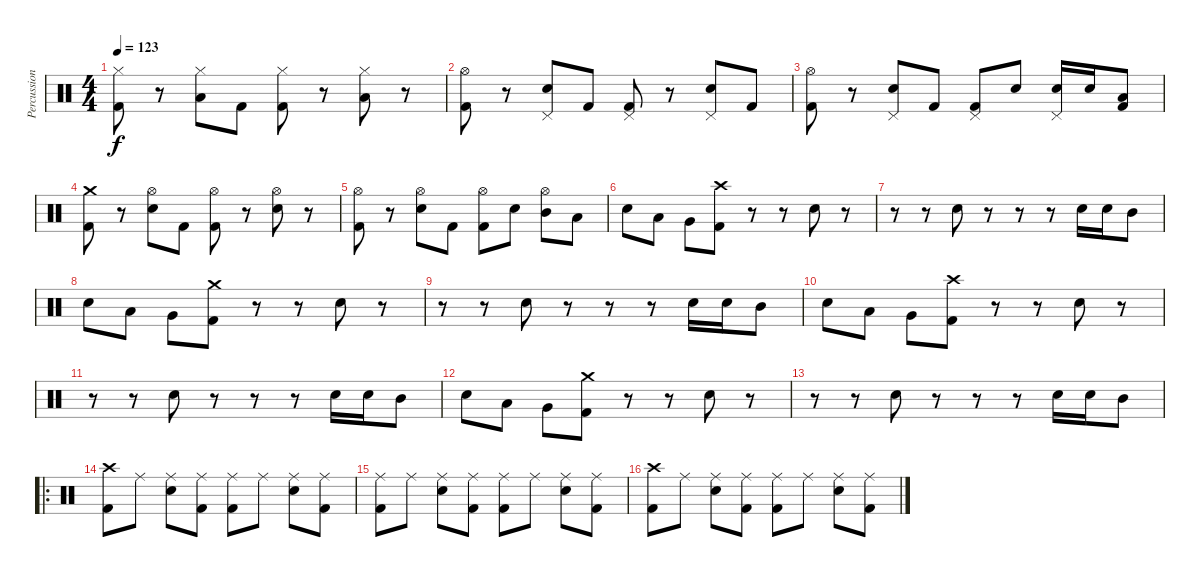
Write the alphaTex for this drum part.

\track ("Percussion" "Percussion") {instrument percussion}
\staff {score}
\articulation defaults
\ts (4 4)
\tempo 123
\clef neutral
\ks c
("Hi-Hat (closed)" "Kick (hit) 2").8{dy f} r.8 ("Hi-Hat (closed)" "Low Tom (hit)").8 "Kick (hit) 2".8 ("Hi-Hat (closed)" "Kick (hit) 2").8 r.8 ("Hi-Hat (closed)" "Low Tom (hit)").8 r.8 |
\section ("" "")
("Hi-Hat (open)" "Kick (hit) 2").8 r.8 ("Pedal Hi-Hat (hit)" "Electric Snare (hit)").8 "Kick (hit) 2".8 ("Pedal Hi-Hat (hit)" "Kick (hit) 2").8 r.8 ("Pedal Hi-Hat (hit)" "Electric Snare (hit)").8 "Kick (hit) 2".8 |
("Hi-Hat (open)" "Kick (hit) 2").8 r.8 ("Pedal Hi-Hat (hit)" "Electric Snare (hit)").8 "Kick (hit) 2".8 ("Pedal Hi-Hat (hit)" "Kick (hit) 2").8 "Electric Snare (hit)".8 ("Pedal Hi-Hat (hit)" "Electric Snare (hit)").16 "Electric Snare (hit)".16 ("Low Tom (hit)" "Kick (hit) 2").8 |
("Crash medium (hit)" "Kick (hit) 2").8 r.8 ("Hi-Hat (open)" "Electric Snare (hit)").8 "Kick (hit) 2".8 ("Hi-Hat (open)" "Kick (hit) 2").8 r.8 ("Hi-Hat (open)" "Electric Snare (hit)").8 r.8 |
("Hi-Hat (open)" "Kick (hit) 2").8 r.8 ("Hi-Hat (open)" "Electric Snare (hit)").8 "Kick (hit) 2".8 ("Hi-Hat (open)" "Kick (hit) 2").8 "Electric Snare (hit)".8 ("Hi-Hat (open)" "Mid Tom (hit)").8 "Low Tom (hit)".8 |
\section ("" "")
"Electric Snare (hit)".8 "Low Tom (hit)".8 "Very Low Tom (hit)".8 ("Crash high (hit)" "Kick (hit) 2").8 r.8 r.8 "Electric Snare (hit)".8 r.8 |
r.8 r.8 "Electric Snare (hit)".8 r.8 r.8 r.8 "Electric Snare (hit)".16 "Electric Snare (hit)".16 "Mid Tom (hit)".8 |
"Electric Snare (hit)".8 "Low Tom (hit)".8 "Very Low Tom (hit)".8 ("Crash medium (hit)" "Kick (hit) 2").8 r.8 r.8 "Electric Snare (hit)".8 r.8 |
r.8 r.8 "Electric Snare (hit)".8 r.8 r.8 r.8 "Electric Snare (hit)".16 "Electric Snare (hit)".16 "Mid Tom (hit)".8 |
"Electric Snare (hit)".8 "Low Tom (hit)".8 "Very Low Tom (hit)".8 ("Crash high (hit)" "Kick (hit) 2").8 r.8 r.8 "Electric Snare (hit)".8 r.8 |
r.8 r.8 "Electric Snare (hit)".8 r.8 r.8 r.8 "Electric Snare (hit)".16 "Electric Snare (hit)".16 "Mid Tom (hit)".8 |
"Electric Snare (hit)".8 "Low Tom (hit)".8 "Very Low Tom (hit)".8 ("Crash medium (hit)" "Kick (hit) 2").8 r.8 r.8 "Electric Snare (hit)".8 r.8 |
r.8 r.8 "Electric Snare (hit)".8 r.8 r.8 r.8 "Electric Snare (hit)".16 "Electric Snare (hit)".16 "Mid Tom (hit)".8 |
\ro
\section ("" "")
("Crash high (hit)" "Kick (hit) 2").8 "Ride (middle)".8 ("Ride (middle)" "Electric Snare (hit)").8 ("Ride (middle)" "Kick (hit) 2").8 ("Ride (middle)" "Kick (hit) 2").8 "Ride (middle)".8 ("Ride (middle)" "Electric Snare (hit)").8 ("Ride (middle)" "Kick (hit) 2").8 |
("Ride (middle)" "Kick (hit) 2").8 "Ride (middle)".8 ("Ride (middle)" "Electric Snare (hit)").8 ("Ride (middle)" "Kick (hit) 2").8 ("Ride (middle)" "Kick (hit) 2").8 "Ride (middle)".8 ("Ride (middle)" "Electric Snare (hit)").8 ("Ride (middle)" "Kick (hit) 2").8 |
("Crash high (hit)" "Kick (hit) 2").8 "Ride (middle)".8 ("Ride (middle)" "Electric Snare (hit)").8 ("Ride (middle)" "Kick (hit) 2").8 ("Ride (middle)" "Kick (hit) 2").8 "Ride (middle)".8 ("Ride (middle)" "Electric Snare (hit)").8 ("Ride (middle)" "Kick (hit) 2").8
